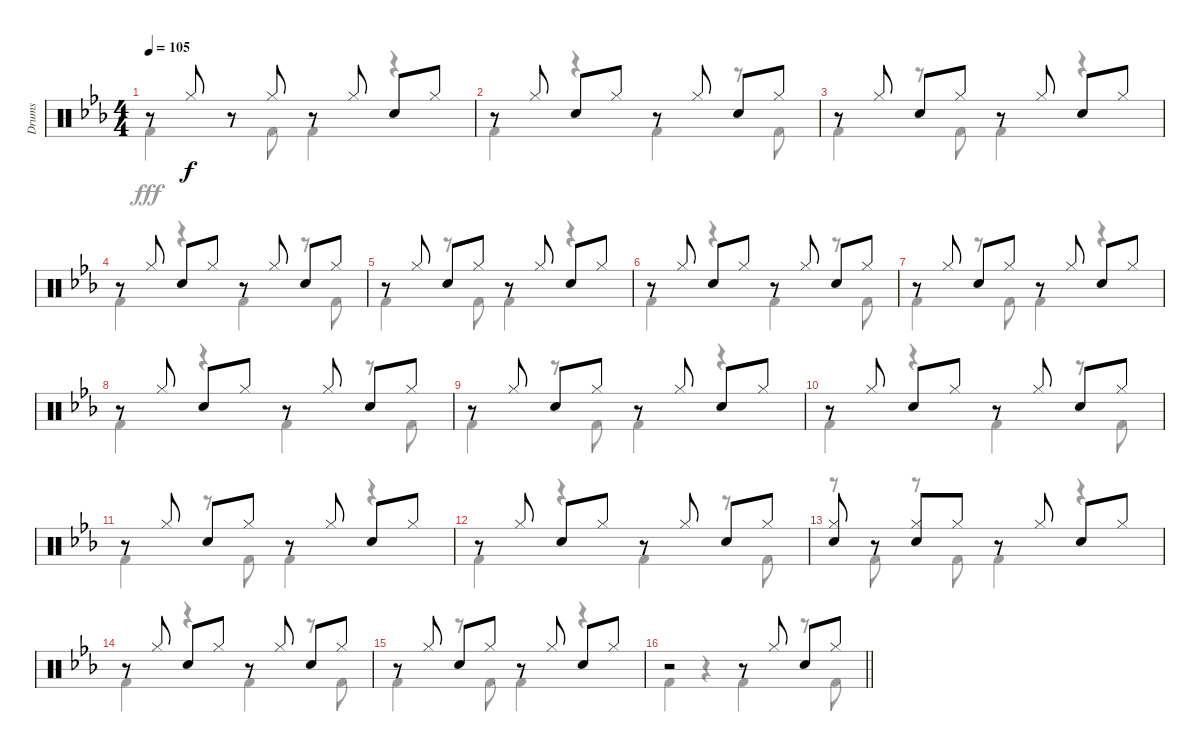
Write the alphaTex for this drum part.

\track ("Drums" "Drums") {instrument percussion}
\staff {score}
\articulation defaults
\voice
\ts (4 4)
\tempo 105
\clef neutral
\ks eb
r.8{dy f} "Hi-Hat (closed)".8 r.8 "Hi-Hat (closed)".8 r.8 "Hi-Hat (closed)".8 "Snare (hit) 2".8 "Hi-Hat (closed)".8 |
r.8 "Hi-Hat (closed)".8 "Snare (hit) 2".8 "Hi-Hat (closed)".8 r.8 "Hi-Hat (closed)".8 "Snare (hit) 2".8 "Hi-Hat (closed)".8 |
r.8 "Hi-Hat (closed)".8 "Snare (hit) 2".8 "Hi-Hat (closed)".8 r.8 "Hi-Hat (closed)".8 "Snare (hit) 2".8 "Hi-Hat (closed)".8 |
r.8 "Hi-Hat (closed)".8 "Snare (hit) 2".8 "Hi-Hat (closed)".8 r.8 "Hi-Hat (closed)".8 "Snare (hit) 2".8 "Hi-Hat (closed)".8 |
r.8 "Hi-Hat (closed)".8 "Snare (hit) 2".8 "Hi-Hat (closed)".8 r.8 "Hi-Hat (closed)".8 "Snare (hit) 2".8 "Hi-Hat (closed)".8 |
r.8 "Hi-Hat (closed)".8 "Snare (hit) 2".8 "Hi-Hat (closed)".8 r.8 "Hi-Hat (closed)".8 "Snare (hit) 2".8 "Hi-Hat (closed)".8 |
r.8 "Hi-Hat (closed)".8 "Snare (hit) 2".8 "Hi-Hat (closed)".8 r.8 "Hi-Hat (closed)".8 "Snare (hit) 2".8 "Hi-Hat (closed)".8 |
r.8 "Hi-Hat (closed)".8 "Snare (hit) 2".8 "Hi-Hat (closed)".8 r.8 "Hi-Hat (closed)".8 "Snare (hit) 2".8 "Hi-Hat (closed)".8 |
r.8 "Hi-Hat (closed)".8 "Snare (hit) 2".8 "Hi-Hat (closed)".8 r.8 "Hi-Hat (closed)".8 "Snare (hit) 2".8 "Hi-Hat (closed)".8 |
r.8 "Hi-Hat (closed)".8 "Snare (hit) 2".8 "Hi-Hat (closed)".8 r.8 "Hi-Hat (closed)".8 "Snare (hit) 2".8 "Hi-Hat (closed)".8 |
r.8 "Hi-Hat (closed)".8 "Snare (hit) 2".8 "Hi-Hat (closed)".8 r.8 "Hi-Hat (closed)".8 "Snare (hit) 2".8 "Hi-Hat (closed)".8 |
r.8 "Hi-Hat (closed)".8 "Snare (hit) 2".8 "Hi-Hat (closed)".8 r.8 "Hi-Hat (closed)".8 "Snare (hit) 2".8 "Hi-Hat (closed)".8 |
("Hi-Hat (closed)" "Snare (hit) 2").8 r.8 ("Hi-Hat (closed)" "Snare (hit) 2").8 "Hi-Hat (closed)".8 r.8 "Hi-Hat (closed)".8 "Snare (hit) 2".8 "Hi-Hat (closed)".8 |
r.8 "Hi-Hat (closed)".8 "Snare (hit) 2".8 "Hi-Hat (closed)".8 r.8 "Hi-Hat (closed)".8 "Snare (hit) 2".8 "Hi-Hat (closed)".8 |
r.8 "Hi-Hat (closed)".8 "Snare (hit) 2".8 "Hi-Hat (closed)".8 r.8 "Hi-Hat (closed)".8 "Snare (hit) 2".8 "Hi-Hat (closed)".8 |
\barLineRight lightlight
r.2 r.8 "Hi-Hat (closed)".8 "Snare (hit) 2".8 "Hi-Hat (closed)".8
\voice
\clef neutral
\ottava regular
\simile none
\ks eb "Kick (hit) 2".4{dy fff}
r.8 "Kick (hit) 2".8 "Kick (hit) 2".4 r.4 |
"Kick (hit) 2".4 r.4 "Kick (hit) 2".4 r.8 "Kick (hit) 2".8 |
"Kick (hit) 2".4 r.8 "Kick (hit) 2".8 "Kick (hit) 2".4 r.4 |
"Kick (hit) 2".4 r.4 "Kick (hit) 2".4 r.8 "Kick (hit) 2".8 |
"Kick (hit) 2".4 r.8 "Kick (hit) 2".8 "Kick (hit) 2".4 r.4 |
"Kick (hit) 2".4 r.4 "Kick (hit) 2".4 r.8 "Kick (hit) 2".8 |
"Kick (hit) 2".4 r.8 "Kick (hit) 2".8 "Kick (hit) 2".4 r.4 |
"Kick (hit) 2".4 r.4 "Kick (hit) 2".4 r.8 "Kick (hit) 2".8 |
"Kick (hit) 2".4 r.8 "Kick (hit) 2".8 "Kick (hit) 2".4 r.4 |
"Kick (hit) 2".4 r.4 "Kick (hit) 2".4 r.8 "Kick (hit) 2".8 |
"Kick (hit) 2".4 r.8 "Kick (hit) 2".8 "Kick (hit) 2".4 r.4 |
"Kick (hit) 2".4 r.4 "Kick (hit) 2".4 r.8 "Kick (hit) 2".8 |
r.8 "Kick (hit) 2".8 r.8 "Kick (hit) 2".8 "Kick (hit) 2".4 r.4 |
"Kick (hit) 2".4 r.4 "Kick (hit) 2".4 r.8 "Kick (hit) 2".8 |
"Kick (hit) 2".4 r.8 "Kick (hit) 2".8 "Kick (hit) 2".4 r.4 |
\barLineRight lightlight "Kick (hit) 2".4
r.4 "Kick (hit) 2".4 r.8 "Kick (hit) 2".8
